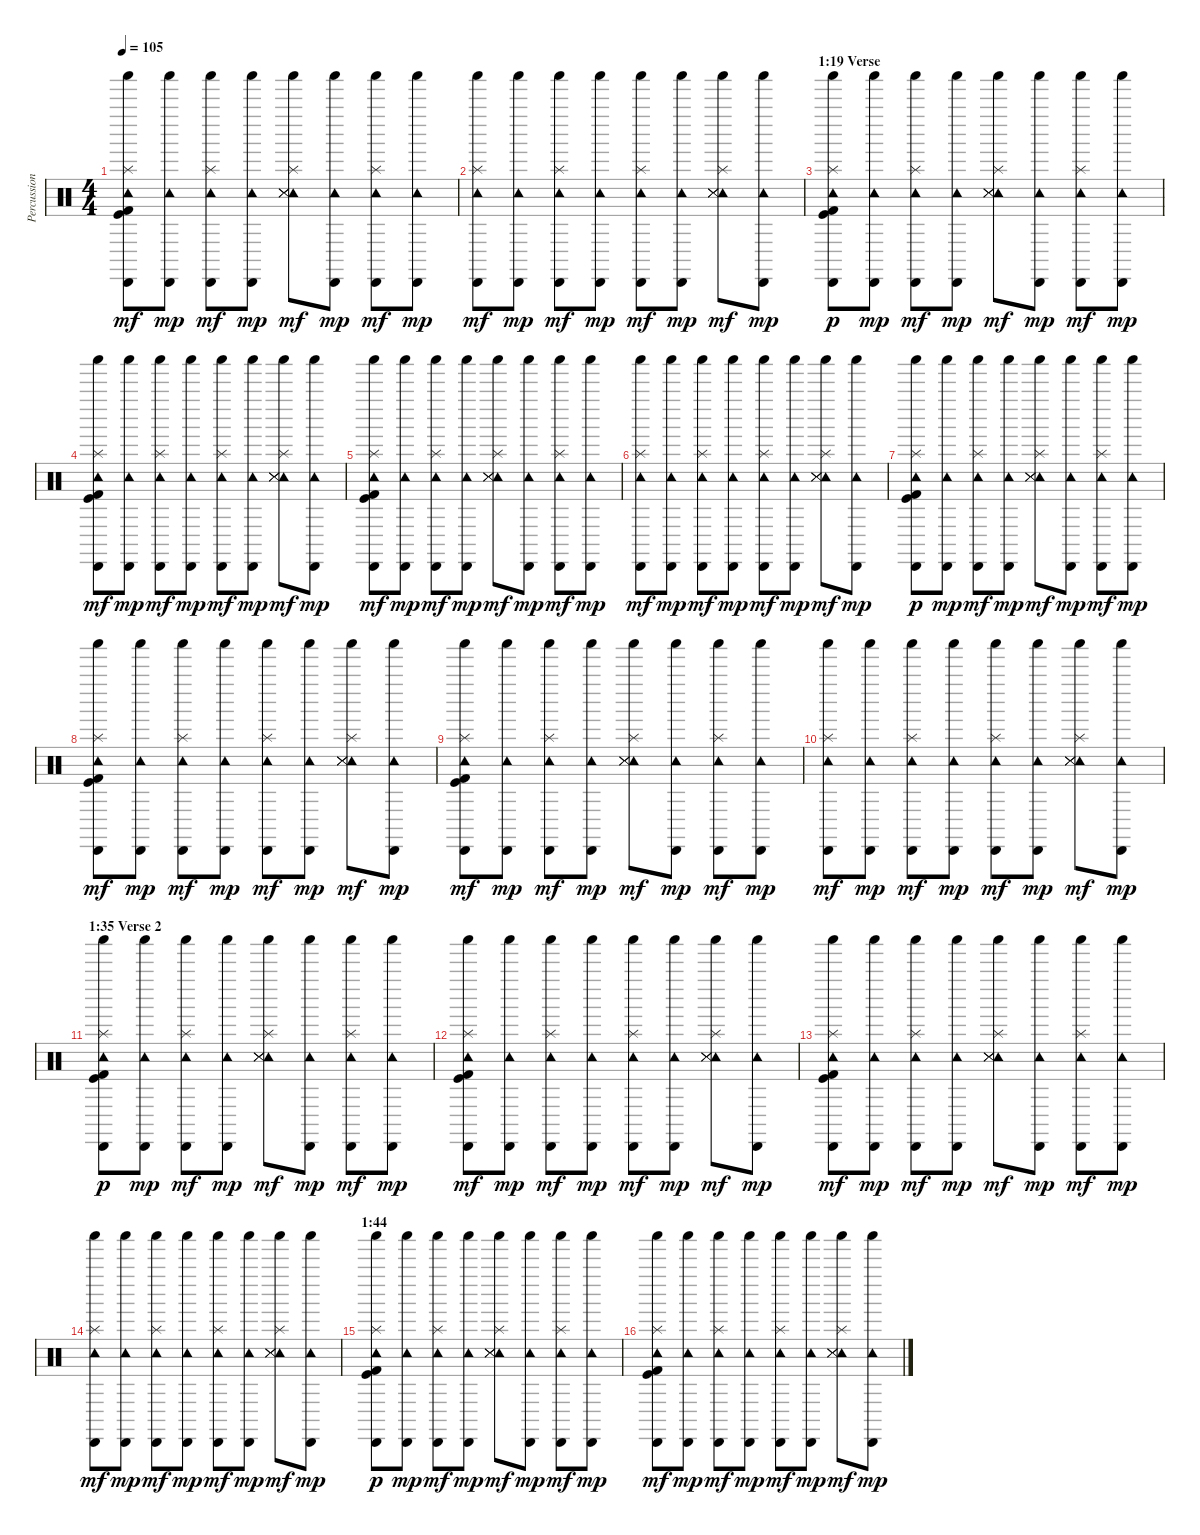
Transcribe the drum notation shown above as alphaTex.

\track ("Percussion (Ian Paice)" "Percussion") {instrument percussion}
\staff {score}
\articulation defaults
\ts (4 4)
\tempo 105
\clef neutral
\ks c
("Shaker (hit)" "Tambourine (hit)" "Cabasa (hit)" "Kick (hit)" "Kick (hit) 2" "Splash (hit)").8{dy mf} ("Shaker (hit)" "Tambourine (hit)" "Cabasa (hit)").8{dy mp} ("Shaker (hit)" "Tambourine (hit)" "Cabasa (hit)" "Splash (hit)").8{dy mf} ("Shaker (hit)" "Tambourine (hit)" "Cabasa (hit)").8{dy mp} ("Shaker (hit)" "Tambourine (hit)" "Snare (side stick) 3" "Snare (side stick) 3" "Snare (side stick) 3" "Splash (hit)").8{dy mf} ("Shaker (hit)" "Tambourine (hit)" "Cabasa (hit)").8{dy mp} ("Shaker (hit)" "Tambourine (hit)" "Cabasa (hit)" "Splash (hit)").8{dy mf} ("Shaker (hit)" "Tambourine (hit)" "Cabasa (hit)").8{dy mp} |
("Shaker (hit)" "Tambourine (hit)" "Cabasa (hit)" "Splash (hit)").8{dy mf} ("Shaker (hit)" "Tambourine (hit)" "Cabasa (hit)").8{dy mp} ("Shaker (hit)" "Tambourine (hit)" "Cabasa (hit)" "Splash (hit)").8{dy mf} ("Shaker (hit)" "Tambourine (hit)" "Cabasa (hit)").8{dy mp} ("Shaker (hit)" "Tambourine (hit)" "Cabasa (hit)" "Splash (hit)").8{dy mf} ("Shaker (hit)" "Tambourine (hit)" "Cabasa (hit)").8{dy mp} ("Shaker (hit)" "Tambourine (hit)" "Snare (side stick) 3" "Snare (side stick) 3" "Snare (side stick) 3" "Splash (hit)").8{dy mf} ("Shaker (hit)" "Tambourine (hit)" "Cabasa (hit)").8{dy mp} |
\section ("" "1:19 Verse")
("Shaker (hit)" "Tambourine (hit)" "Cabasa (hit)" "Kick (hit)" "Kick (hit) 2" "Splash (hit)").8{dy p} ("Shaker (hit)" "Tambourine (hit)" "Cabasa (hit)").8{dy mp} ("Shaker (hit)" "Tambourine (hit)" "Cabasa (hit)" "Splash (hit)").8{dy mf} ("Shaker (hit)" "Tambourine (hit)" "Cabasa (hit)").8{dy mp} ("Shaker (hit)" "Tambourine (hit)" "Snare (side stick) 3" "Snare (side stick) 3" "Snare (side stick) 3" "Splash (hit)").8{dy mf} ("Shaker (hit)" "Tambourine (hit)" "Cabasa (hit)").8{dy mp} ("Shaker (hit)" "Tambourine (hit)" "Cabasa (hit)" "Splash (hit)").8{dy mf} ("Shaker (hit)" "Tambourine (hit)" "Cabasa (hit)").8{dy mp} |
("Shaker (hit)" "Tambourine (hit)" "Cabasa (hit)" "Kick (hit)" "Kick (hit) 2" "Splash (hit)").8{dy mf} ("Shaker (hit)" "Tambourine (hit)" "Cabasa (hit)").8{dy mp} ("Shaker (hit)" "Tambourine (hit)" "Cabasa (hit)" "Splash (hit)").8{dy mf} ("Shaker (hit)" "Tambourine (hit)" "Cabasa (hit)").8{dy mp} ("Shaker (hit)" "Tambourine (hit)" "Cabasa (hit)" "Splash (hit)").8{dy mf} ("Shaker (hit)" "Tambourine (hit)" "Cabasa (hit)").8{dy mp} ("Shaker (hit)" "Tambourine (hit)" "Snare (side stick) 3" "Snare (side stick) 3" "Snare (side stick) 3" "Splash (hit)").8{dy mf} ("Shaker (hit)" "Tambourine (hit)" "Cabasa (hit)").8{dy mp} |
("Shaker (hit)" "Tambourine (hit)" "Cabasa (hit)" "Kick (hit)" "Kick (hit) 2" "Splash (hit)").8{dy mf} ("Shaker (hit)" "Tambourine (hit)" "Cabasa (hit)").8{dy mp} ("Shaker (hit)" "Tambourine (hit)" "Cabasa (hit)" "Splash (hit)").8{dy mf} ("Shaker (hit)" "Tambourine (hit)" "Cabasa (hit)").8{dy mp} ("Shaker (hit)" "Tambourine (hit)" "Snare (side stick) 3" "Snare (side stick) 3" "Snare (side stick) 3" "Splash (hit)").8{dy mf} ("Shaker (hit)" "Tambourine (hit)" "Cabasa (hit)").8{dy mp} ("Shaker (hit)" "Tambourine (hit)" "Cabasa (hit)" "Splash (hit)").8{dy mf} ("Shaker (hit)" "Tambourine (hit)" "Cabasa (hit)").8{dy mp} |
("Shaker (hit)" "Tambourine (hit)" "Cabasa (hit)" "Splash (hit)").8{dy mf} ("Shaker (hit)" "Tambourine (hit)" "Cabasa (hit)").8{dy mp} ("Shaker (hit)" "Tambourine (hit)" "Cabasa (hit)" "Splash (hit)").8{dy mf} ("Shaker (hit)" "Tambourine (hit)" "Cabasa (hit)").8{dy mp} ("Shaker (hit)" "Tambourine (hit)" "Cabasa (hit)" "Splash (hit)").8{dy mf} ("Shaker (hit)" "Tambourine (hit)" "Cabasa (hit)").8{dy mp} ("Shaker (hit)" "Tambourine (hit)" "Snare (side stick) 3" "Snare (side stick) 3" "Snare (side stick) 3" "Splash (hit)").8{dy mf} ("Shaker (hit)" "Tambourine (hit)" "Cabasa (hit)").8{dy mp} |
("Shaker (hit)" "Tambourine (hit)" "Cabasa (hit)" "Kick (hit)" "Kick (hit) 2" "Splash (hit)").8{dy p} ("Shaker (hit)" "Tambourine (hit)" "Cabasa (hit)").8{dy mp} ("Shaker (hit)" "Tambourine (hit)" "Cabasa (hit)" "Splash (hit)").8{dy mf} ("Shaker (hit)" "Tambourine (hit)" "Cabasa (hit)").8{dy mp} ("Shaker (hit)" "Tambourine (hit)" "Snare (side stick) 3" "Snare (side stick) 3" "Snare (side stick) 3" "Splash (hit)").8{dy mf} ("Shaker (hit)" "Tambourine (hit)" "Cabasa (hit)").8{dy mp} ("Shaker (hit)" "Tambourine (hit)" "Cabasa (hit)" "Splash (hit)").8{dy mf} ("Shaker (hit)" "Tambourine (hit)" "Cabasa (hit)").8{dy mp} |
("Shaker (hit)" "Tambourine (hit)" "Cabasa (hit)" "Kick (hit)" "Kick (hit) 2" "Splash (hit)").8{dy mf} ("Shaker (hit)" "Tambourine (hit)" "Cabasa (hit)").8{dy mp} ("Shaker (hit)" "Tambourine (hit)" "Cabasa (hit)" "Splash (hit)").8{dy mf} ("Shaker (hit)" "Tambourine (hit)" "Cabasa (hit)").8{dy mp} ("Shaker (hit)" "Tambourine (hit)" "Cabasa (hit)" "Splash (hit)").8{dy mf} ("Shaker (hit)" "Tambourine (hit)" "Cabasa (hit)").8{dy mp} ("Shaker (hit)" "Tambourine (hit)" "Snare (side stick) 3" "Snare (side stick) 3" "Snare (side stick) 3" "Splash (hit)").8{dy mf} ("Shaker (hit)" "Tambourine (hit)" "Cabasa (hit)").8{dy mp} |
("Shaker (hit)" "Tambourine (hit)" "Cabasa (hit)" "Kick (hit)" "Kick (hit) 2" "Splash (hit)").8{dy mf} ("Shaker (hit)" "Tambourine (hit)" "Cabasa (hit)").8{dy mp} ("Shaker (hit)" "Tambourine (hit)" "Cabasa (hit)" "Splash (hit)").8{dy mf} ("Shaker (hit)" "Tambourine (hit)" "Cabasa (hit)").8{dy mp} ("Shaker (hit)" "Tambourine (hit)" "Snare (side stick) 3" "Snare (side stick) 3" "Snare (side stick) 3" "Splash (hit)").8{dy mf} ("Shaker (hit)" "Tambourine (hit)" "Cabasa (hit)").8{dy mp} ("Shaker (hit)" "Tambourine (hit)" "Cabasa (hit)" "Splash (hit)").8{dy mf} ("Shaker (hit)" "Tambourine (hit)" "Cabasa (hit)").8{dy mp} |
("Shaker (hit)" "Tambourine (hit)" "Cabasa (hit)" "Splash (hit)").8{dy mf} ("Shaker (hit)" "Tambourine (hit)" "Cabasa (hit)").8{dy mp} ("Shaker (hit)" "Tambourine (hit)" "Cabasa (hit)" "Splash (hit)").8{dy mf} ("Shaker (hit)" "Tambourine (hit)" "Cabasa (hit)").8{dy mp} ("Shaker (hit)" "Tambourine (hit)" "Cabasa (hit)" "Splash (hit)").8{dy mf} ("Shaker (hit)" "Tambourine (hit)" "Cabasa (hit)").8{dy mp} ("Shaker (hit)" "Tambourine (hit)" "Snare (side stick) 3" "Snare (side stick) 3" "Snare (side stick) 3" "Splash (hit)").8{dy mf} ("Shaker (hit)" "Tambourine (hit)" "Cabasa (hit)").8{dy mp} |
\section ("" "1:35 Verse 2")
("Shaker (hit)" "Tambourine (hit)" "Cabasa (hit)" "Kick (hit)" "Kick (hit) 2" "Splash (hit)").8{dy p} ("Shaker (hit)" "Tambourine (hit)" "Cabasa (hit)").8{dy mp} ("Shaker (hit)" "Tambourine (hit)" "Cabasa (hit)" "Splash (hit)").8{dy mf} ("Shaker (hit)" "Tambourine (hit)" "Cabasa (hit)").8{dy mp} ("Shaker (hit)" "Tambourine (hit)" "Snare (side stick) 3" "Snare (side stick) 3" "Snare (side stick) 3" "Splash (hit)").8{dy mf} ("Shaker (hit)" "Tambourine (hit)" "Cabasa (hit)").8{dy mp} ("Shaker (hit)" "Tambourine (hit)" "Cabasa (hit)" "Splash (hit)").8{dy mf} ("Shaker (hit)" "Tambourine (hit)" "Cabasa (hit)").8{dy mp} |
("Shaker (hit)" "Tambourine (hit)" "Cabasa (hit)" "Kick (hit)" "Kick (hit) 2" "Splash (hit)").8{dy mf} ("Shaker (hit)" "Tambourine (hit)" "Cabasa (hit)").8{dy mp} ("Shaker (hit)" "Tambourine (hit)" "Cabasa (hit)" "Splash (hit)").8{dy mf} ("Shaker (hit)" "Tambourine (hit)" "Cabasa (hit)").8{dy mp} ("Shaker (hit)" "Tambourine (hit)" "Cabasa (hit)" "Splash (hit)").8{dy mf} ("Shaker (hit)" "Tambourine (hit)" "Cabasa (hit)").8{dy mp} ("Shaker (hit)" "Tambourine (hit)" "Snare (side stick) 3" "Snare (side stick) 3" "Snare (side stick) 3" "Splash (hit)").8{dy mf} ("Shaker (hit)" "Tambourine (hit)" "Cabasa (hit)").8{dy mp} |
("Shaker (hit)" "Tambourine (hit)" "Cabasa (hit)" "Kick (hit)" "Kick (hit) 2" "Splash (hit)").8{dy mf} ("Shaker (hit)" "Tambourine (hit)" "Cabasa (hit)").8{dy mp} ("Shaker (hit)" "Tambourine (hit)" "Cabasa (hit)" "Splash (hit)").8{dy mf} ("Shaker (hit)" "Tambourine (hit)" "Cabasa (hit)").8{dy mp} ("Shaker (hit)" "Tambourine (hit)" "Snare (side stick) 3" "Snare (side stick) 3" "Snare (side stick) 3" "Splash (hit)").8{dy mf} ("Shaker (hit)" "Tambourine (hit)" "Cabasa (hit)").8{dy mp} ("Shaker (hit)" "Tambourine (hit)" "Cabasa (hit)" "Splash (hit)").8{dy mf} ("Shaker (hit)" "Tambourine (hit)" "Cabasa (hit)").8{dy mp} |
("Shaker (hit)" "Tambourine (hit)" "Cabasa (hit)" "Splash (hit)").8{dy mf} ("Shaker (hit)" "Tambourine (hit)" "Cabasa (hit)").8{dy mp} ("Shaker (hit)" "Tambourine (hit)" "Cabasa (hit)" "Splash (hit)").8{dy mf} ("Shaker (hit)" "Tambourine (hit)" "Cabasa (hit)").8{dy mp} ("Shaker (hit)" "Tambourine (hit)" "Cabasa (hit)" "Splash (hit)").8{dy mf} ("Shaker (hit)" "Tambourine (hit)" "Cabasa (hit)").8{dy mp} ("Shaker (hit)" "Tambourine (hit)" "Snare (side stick) 3" "Snare (side stick) 3" "Snare (side stick) 3" "Splash (hit)").8{dy mf} ("Shaker (hit)" "Tambourine (hit)" "Cabasa (hit)").8{dy mp} |
\section ("" "1:44")
("Shaker (hit)" "Tambourine (hit)" "Cabasa (hit)" "Kick (hit)" "Kick (hit) 2" "Splash (hit)").8{dy p} ("Shaker (hit)" "Tambourine (hit)" "Cabasa (hit)").8{dy mp} ("Shaker (hit)" "Tambourine (hit)" "Cabasa (hit)" "Splash (hit)").8{dy mf} ("Shaker (hit)" "Tambourine (hit)" "Cabasa (hit)").8{dy mp} ("Shaker (hit)" "Tambourine (hit)" "Snare (side stick) 3" "Snare (side stick) 3" "Snare (side stick) 3" "Splash (hit)").8{dy mf} ("Shaker (hit)" "Tambourine (hit)" "Cabasa (hit)").8{dy mp} ("Shaker (hit)" "Tambourine (hit)" "Cabasa (hit)" "Splash (hit)").8{dy mf} ("Shaker (hit)" "Tambourine (hit)" "Cabasa (hit)").8{dy mp} |
("Shaker (hit)" "Tambourine (hit)" "Cabasa (hit)" "Kick (hit)" "Kick (hit) 2" "Splash (hit)").8{dy mf} ("Shaker (hit)" "Tambourine (hit)" "Cabasa (hit)").8{dy mp} ("Shaker (hit)" "Tambourine (hit)" "Cabasa (hit)" "Splash (hit)").8{dy mf} ("Shaker (hit)" "Tambourine (hit)" "Cabasa (hit)").8{dy mp} ("Shaker (hit)" "Tambourine (hit)" "Cabasa (hit)" "Splash (hit)").8{dy mf} ("Shaker (hit)" "Tambourine (hit)" "Cabasa (hit)").8{dy mp} ("Shaker (hit)" "Tambourine (hit)" "Snare (side stick) 3" "Snare (side stick) 3" "Snare (side stick) 3" "Splash (hit)").8{dy mf} ("Shaker (hit)" "Tambourine (hit)" "Cabasa (hit)").8{dy mp}
